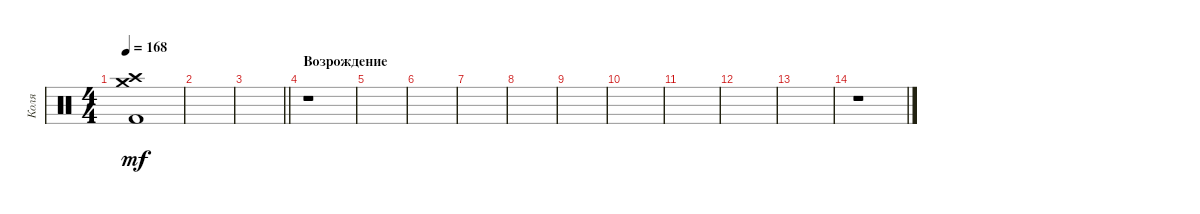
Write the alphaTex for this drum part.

\track ("Коля" "Коля") {instrument percussion}
\staff {score}
\articulation defaults
\ts (4 4)
\tempo 168
\clef neutral
\ks c
("Kick (hit) 2" "Crash medium (hit)" "Crash high (hit)").1{dy mf} |
|
\barLineRight lightlight
|
\section ("" "Возрождение")
r.1 |
|
|
|
|
|
|
|
|
|
r.1
